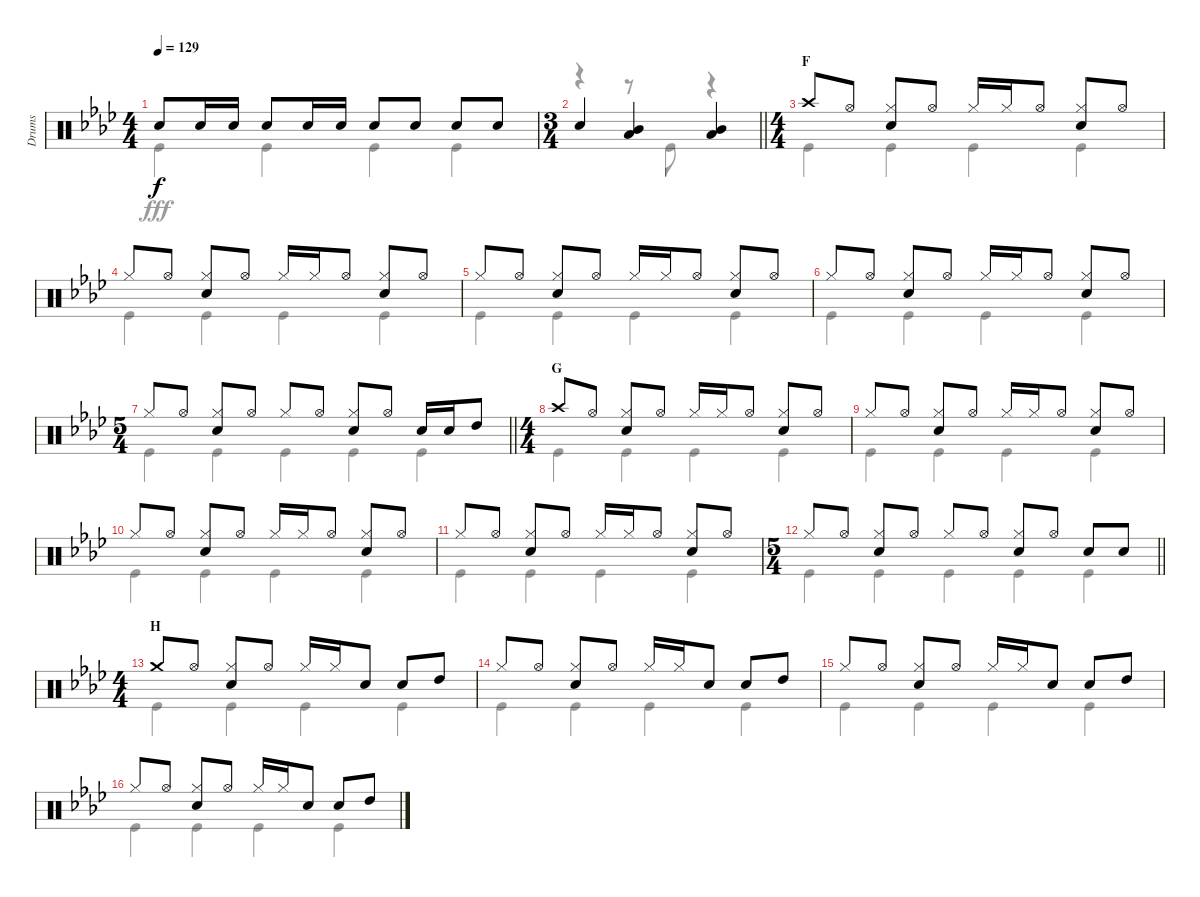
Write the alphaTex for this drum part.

\track ("Drums" "Drums") {instrument percussion}
\staff {score}
\articulation defaults
\voice
\ts (4 4)
\tempo 129
\clef neutral
\ks ab "Snare (hit) 2".8{dy f} "Snare (hit) 2".16 "Snare (hit) 2".16 "Snare (hit) 2".8 "Snare (hit) 2".16 "Snare (hit) 2".16 "Snare (hit) 2".8 "Snare (hit) 2".8 "Snare (hit) 2".8 "Snare (hit) 2".8
|
\ts (3 4)
\barLineRight lightlight "Snare (hit) 2".4
("Mid Tom (hit)" "Low Tom (hit)").4 ("Mid Tom (hit)" "Low Tom (hit)").4 |
\ts (4 4)
\section ("" "F")
"Crash high (hit)".8 "Hi-Hat (open)".8 ("Hi-Hat (closed)" "Snare (hit) 2").8 "Hi-Hat (open)".8 "Hi-Hat (closed)".16 "Hi-Hat (closed)".16 "Hi-Hat (open)".8 ("Hi-Hat (closed)" "Snare (hit) 2").8 "Hi-Hat (open)".8 |
"Hi-Hat (closed)".8 "Hi-Hat (open)".8 ("Hi-Hat (closed)" "Snare (hit) 2").8 "Hi-Hat (open)".8 "Hi-Hat (closed)".16 "Hi-Hat (closed)".16 "Hi-Hat (open)".8 ("Hi-Hat (closed)" "Snare (hit) 2").8 "Hi-Hat (open)".8 |
"Hi-Hat (closed)".8 "Hi-Hat (open)".8 ("Hi-Hat (closed)" "Snare (hit) 2").8 "Hi-Hat (open)".8 "Hi-Hat (closed)".16 "Hi-Hat (closed)".16 "Hi-Hat (open)".8 ("Hi-Hat (closed)" "Snare (hit) 2").8 "Hi-Hat (open)".8 |
"Hi-Hat (closed)".8 "Hi-Hat (open)".8 ("Hi-Hat (closed)" "Snare (hit) 2").8 "Hi-Hat (open)".8 "Hi-Hat (closed)".16 "Hi-Hat (closed)".16 "Hi-Hat (open)".8 ("Hi-Hat (closed)" "Snare (hit) 2").8 "Hi-Hat (open)".8 |
\ts (5 4)
\barLineRight lightlight "Hi-Hat (closed)".8 "Hi-Hat (open)".8
("Hi-Hat (closed)" "Snare (hit) 2").8 "Hi-Hat (open)".8 "Hi-Hat (closed)".8 "Hi-Hat (open)".8 ("Hi-Hat (closed)" "Snare (hit) 2").8 "Hi-Hat (open)".8 "Snare (hit) 2".16 "Snare (hit) 2".16 "High Tom (hit)".8 |
\ts (4 4)
\section ("" "G")
"Crash high (hit)".8 "Hi-Hat (open)".8 ("Hi-Hat (closed)" "Snare (hit) 2").8 "Hi-Hat (open)".8 "Hi-Hat (closed)".16 "Hi-Hat (closed)".16 "Hi-Hat (open)".8 ("Hi-Hat (closed)" "Snare (hit) 2").8 "Hi-Hat (open)".8 |
"Hi-Hat (closed)".8 "Hi-Hat (open)".8 ("Hi-Hat (closed)" "Snare (hit) 2").8 "Hi-Hat (open)".8 "Hi-Hat (closed)".16 "Hi-Hat (closed)".16 "Hi-Hat (open)".8 ("Hi-Hat (closed)" "Snare (hit) 2").8 "Hi-Hat (open)".8 |
"Hi-Hat (closed)".8 "Hi-Hat (open)".8 ("Hi-Hat (closed)" "Snare (hit) 2").8 "Hi-Hat (open)".8 "Hi-Hat (closed)".16 "Hi-Hat (closed)".16 "Hi-Hat (open)".8 ("Hi-Hat (closed)" "Snare (hit) 2").8 "Hi-Hat (open)".8 |
"Hi-Hat (closed)".8 "Hi-Hat (open)".8 ("Hi-Hat (closed)" "Snare (hit) 2").8 "Hi-Hat (open)".8 "Hi-Hat (closed)".16 "Hi-Hat (closed)".16 "Hi-Hat (open)".8 ("Hi-Hat (closed)" "Snare (hit) 2").8 "Hi-Hat (open)".8 |
\ts (5 4)
\barLineRight lightlight "Hi-Hat (closed)".8 "Hi-Hat (open)".8
("Hi-Hat (closed)" "Snare (hit) 2").8 "Hi-Hat (open)".8 "Hi-Hat (closed)".8 "Hi-Hat (open)".8 ("Hi-Hat (closed)" "Snare (hit) 2").8 "Hi-Hat (open)".8 "Snare (hit) 2".8 "Snare (hit) 2".8 |
\ts (4 4)
\section ("" "H")
"Crash medium (hit)".8 "Hi-Hat (open)".8 ("Hi-Hat (closed)" "Snare (hit) 2").8 "Hi-Hat (open)".8 "Hi-Hat (closed)".16 "Hi-Hat (closed)".16 "Snare (hit) 2".8 "Snare (hit) 2".8 "High Tom (hit)".8 |
"Hi-Hat (closed)".8 "Hi-Hat (open)".8 ("Hi-Hat (closed)" "Snare (hit) 2").8 "Hi-Hat (open)".8 "Hi-Hat (closed)".16 "Hi-Hat (closed)".16 "Snare (hit) 2".8 "Snare (hit) 2".8 "High Tom (hit)".8 |
"Hi-Hat (closed)".8 "Hi-Hat (open)".8 ("Hi-Hat (closed)" "Snare (hit) 2").8 "Hi-Hat (open)".8 "Hi-Hat (closed)".16 "Hi-Hat (closed)".16 "Snare (hit) 2".8 "Snare (hit) 2".8 "High Tom (hit)".8 |
"Hi-Hat (closed)".8 "Hi-Hat (open)".8 ("Hi-Hat (closed)" "Snare (hit) 2").8 "Hi-Hat (open)".8 "Hi-Hat (closed)".16 "Hi-Hat (closed)".16 "Snare (hit) 2".8 "Snare (hit) 2".8 "High Tom (hit)".8
\voice
\clef neutral
\ottava regular
\simile none
\ks ab "Kick (hit)".4{dy fff} "Kick (hit)".4 "Kick (hit)".4 "Kick (hit)".4
|
\barLineRight lightlight
r.4 r.8 "Kick (hit)".8 r.4 |
"Kick (hit)".4 "Kick (hit)".4 "Kick (hit)".4 "Kick (hit)".4 |
"Kick (hit)".4 "Kick (hit)".4 "Kick (hit)".4 "Kick (hit)".4 |
"Kick (hit)".4 "Kick (hit)".4 "Kick (hit)".4 "Kick (hit)".4 |
"Kick (hit)".4 "Kick (hit)".4 "Kick (hit)".4 "Kick (hit)".4 |
\barLineRight lightlight "Kick (hit)".4 "Kick (hit)".4 "Kick (hit)".4 "Kick (hit)".4 "Kick (hit)".4
|
"Kick (hit)".4 "Kick (hit)".4 "Kick (hit)".4 "Kick (hit)".4 |
"Kick (hit)".4 "Kick (hit)".4 "Kick (hit)".4 "Kick (hit)".4 |
"Kick (hit)".4 "Kick (hit)".4 "Kick (hit)".4 "Kick (hit)".4 |
"Kick (hit)".4 "Kick (hit)".4 "Kick (hit)".4 "Kick (hit)".4 |
\barLineRight lightlight "Kick (hit)".4 "Kick (hit)".4 "Kick (hit)".4 "Kick (hit)".4 "Kick (hit)".4
|
"Kick (hit)".4 "Kick (hit)".4 "Kick (hit)".4 "Kick (hit)".4 |
"Kick (hit)".4 "Kick (hit)".4 "Kick (hit)".4 "Kick (hit)".4 |
"Kick (hit)".4 "Kick (hit)".4 "Kick (hit)".4 "Kick (hit)".4 |
"Kick (hit)".4 "Kick (hit)".4 "Kick (hit)".4 "Kick (hit)".4
